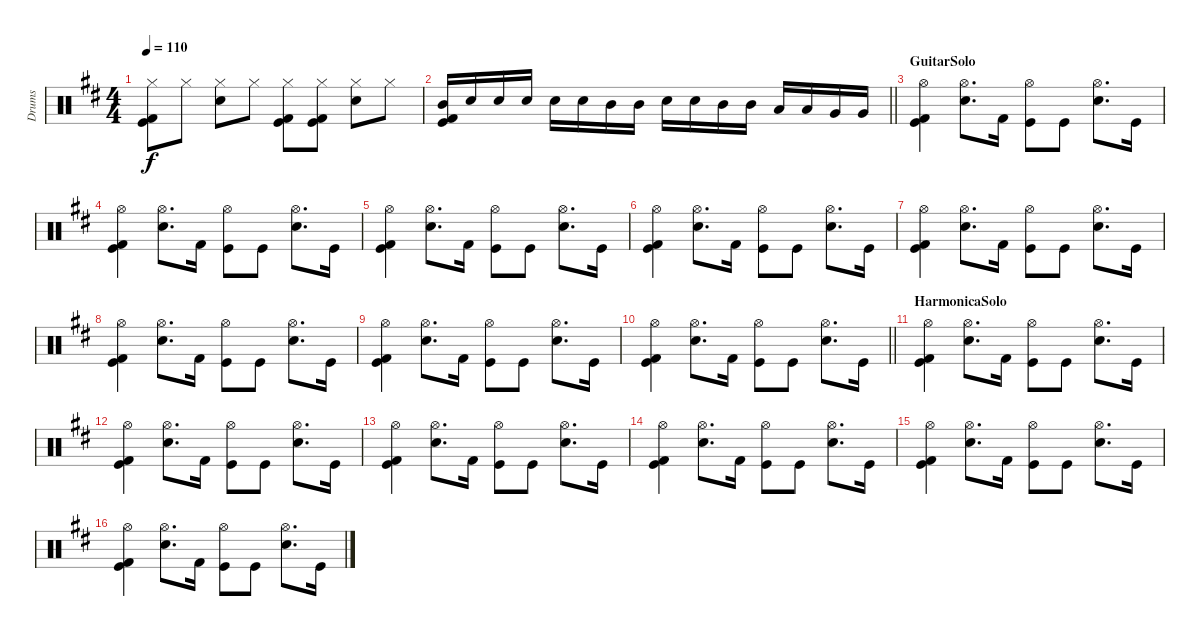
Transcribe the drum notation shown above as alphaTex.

\track ("Drums" "Drums") {instrument percussion}
\staff {score}
\articulation defaults
\ts (4 4)
\tempo 110
\clef neutral
\ks d
("Hi-Hat (closed)" "Kick (hit)" "Kick (hit) 2").8{dy f} "Hi-Hat (closed)".8 ("Hi-Hat (closed)" "Electric Snare (hit)").8 "Hi-Hat (closed)".8 ("Hi-Hat (closed)" "Kick (hit) 2" "Kick (hit)").8 ("Hi-Hat (closed)" "Kick (hit) 2" "Kick (hit)").8 ("Hi-Hat (closed)" "Electric Snare (hit)").8 "Hi-Hat (closed)".8 |
\barLineRight lightlight
("Mid Tom (hit)" "Kick (hit)" "Kick (hit) 2").16 "Electric Snare (hit)".16 "Electric Snare (hit)".16 "Electric Snare (hit)".16 "Electric Snare (hit)".16 "Electric Snare (hit)".16 "Mid Tom (hit)".16 "Mid Tom (hit)".16 "Electric Snare (hit)".16 "Electric Snare (hit)".16 "Mid Tom (hit)".16 "Mid Tom (hit)".16 "Low Tom (hit)".16 "Low Tom (hit)".16 "Very Low Tom (hit)".16 "Very Low Tom (hit)".16 |
\section ("" "GuitarSolo")
("Kick (hit) 2" "Kick (hit)" "Hi-Hat (open)").4 ("Snare (hit) 2" "Hi-Hat (open)").8{d} "Kick (hit) 2".16 ("Kick (hit)" "Hi-Hat (open)").8 "Kick (hit)".8 ("Snare (hit) 2" "Hi-Hat (open)").8{d} "Kick (hit)".16 |
("Kick (hit) 2" "Kick (hit)" "Hi-Hat (open)").4 ("Snare (hit) 2" "Hi-Hat (open)").8{d} "Kick (hit) 2".16 ("Kick (hit)" "Hi-Hat (open)").8 "Kick (hit)".8 ("Snare (hit) 2" "Hi-Hat (open)").8{d} "Kick (hit)".16 |
("Kick (hit) 2" "Kick (hit)" "Hi-Hat (open)").4 ("Snare (hit) 2" "Hi-Hat (open)").8{d} "Kick (hit) 2".16 ("Kick (hit)" "Hi-Hat (open)").8 "Kick (hit)".8 ("Snare (hit) 2" "Hi-Hat (open)").8{d} "Kick (hit)".16 |
("Kick (hit) 2" "Kick (hit)" "Hi-Hat (open)").4 ("Snare (hit) 2" "Hi-Hat (open)").8{d} "Kick (hit) 2".16 ("Kick (hit)" "Hi-Hat (open)").8 "Kick (hit)".8 ("Snare (hit) 2" "Hi-Hat (open)").8{d} "Kick (hit)".16 |
("Kick (hit) 2" "Kick (hit)" "Hi-Hat (open)").4 ("Snare (hit) 2" "Hi-Hat (open)").8{d} "Kick (hit) 2".16 ("Kick (hit)" "Hi-Hat (open)").8 "Kick (hit)".8 ("Snare (hit) 2" "Hi-Hat (open)").8{d} "Kick (hit)".16 |
("Kick (hit) 2" "Kick (hit)" "Hi-Hat (open)").4 ("Snare (hit) 2" "Hi-Hat (open)").8{d} "Kick (hit) 2".16 ("Kick (hit)" "Hi-Hat (open)").8 "Kick (hit)".8 ("Snare (hit) 2" "Hi-Hat (open)").8{d} "Kick (hit)".16 |
("Kick (hit) 2" "Kick (hit)" "Hi-Hat (open)").4 ("Snare (hit) 2" "Hi-Hat (open)").8{d} "Kick (hit) 2".16 ("Kick (hit)" "Hi-Hat (open)").8 "Kick (hit)".8 ("Snare (hit) 2" "Hi-Hat (open)").8{d} "Kick (hit)".16 |
\barLineRight lightlight
("Kick (hit) 2" "Kick (hit)" "Hi-Hat (open)").4 ("Snare (hit) 2" "Hi-Hat (open)").8{d} "Kick (hit) 2".16 ("Kick (hit)" "Hi-Hat (open)").8 "Kick (hit)".8 ("Snare (hit) 2" "Hi-Hat (open)").8{d} "Kick (hit)".16 |
\section ("" "HarmonicaSolo")
("Kick (hit) 2" "Kick (hit)" "Hi-Hat (open)").4 ("Snare (hit) 2" "Hi-Hat (open)").8{d} "Kick (hit) 2".16 ("Kick (hit)" "Hi-Hat (open)").8 "Kick (hit)".8 ("Snare (hit) 2" "Hi-Hat (open)").8{d} "Kick (hit)".16 |
("Kick (hit) 2" "Kick (hit)" "Hi-Hat (open)").4 ("Snare (hit) 2" "Hi-Hat (open)").8{d} "Kick (hit) 2".16 ("Kick (hit)" "Hi-Hat (open)").8 "Kick (hit)".8 ("Snare (hit) 2" "Hi-Hat (open)").8{d} "Kick (hit)".16 |
("Kick (hit) 2" "Kick (hit)" "Hi-Hat (open)").4 ("Snare (hit) 2" "Hi-Hat (open)").8{d} "Kick (hit) 2".16 ("Kick (hit)" "Hi-Hat (open)").8 "Kick (hit)".8 ("Snare (hit) 2" "Hi-Hat (open)").8{d} "Kick (hit)".16 |
("Kick (hit) 2" "Kick (hit)" "Hi-Hat (open)").4 ("Snare (hit) 2" "Hi-Hat (open)").8{d} "Kick (hit) 2".16 ("Kick (hit)" "Hi-Hat (open)").8 "Kick (hit)".8 ("Snare (hit) 2" "Hi-Hat (open)").8{d} "Kick (hit)".16 |
("Kick (hit) 2" "Kick (hit)" "Hi-Hat (open)").4 ("Snare (hit) 2" "Hi-Hat (open)").8{d} "Kick (hit) 2".16 ("Kick (hit)" "Hi-Hat (open)").8 "Kick (hit)".8 ("Snare (hit) 2" "Hi-Hat (open)").8{d} "Kick (hit)".16 |
("Kick (hit) 2" "Kick (hit)" "Hi-Hat (open)").4 ("Snare (hit) 2" "Hi-Hat (open)").8{d} "Kick (hit) 2".16 ("Kick (hit)" "Hi-Hat (open)").8 "Kick (hit)".8 ("Snare (hit) 2" "Hi-Hat (open)").8{d} "Kick (hit)".16
